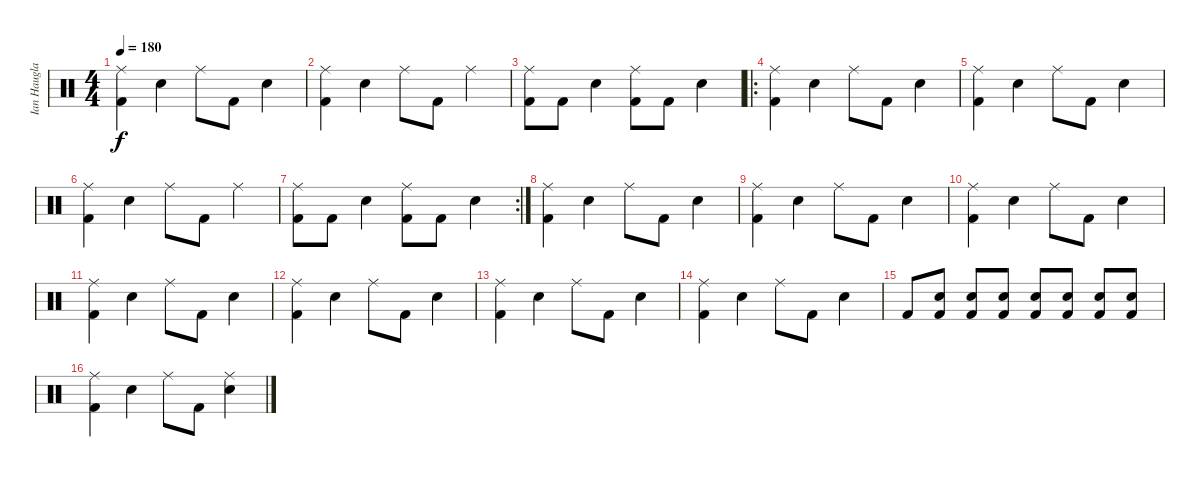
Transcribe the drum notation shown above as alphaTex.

\track ("Ian Haugland drums" "Ian Haugla") {instrument percussion}
\staff {score}
\articulation defaults
\ts (4 4)
\tempo 180
\clef neutral
\ks c
("Ride (middle)" "Kick (hit) 2").4{dy f} "Snare (hit) 2".4 "Ride (middle)".8 "Kick (hit) 2".8 "Snare (hit) 2".4 |
("Ride (middle)" "Kick (hit) 2").4 "Snare (hit) 2".4 "Ride (middle)".8 "Kick (hit) 2".8 "Ride (middle)".4 |
("Ride (middle)" "Kick (hit) 2").8 "Kick (hit) 2".8 "Snare (hit) 2".4 ("Ride (middle)" "Kick (hit) 2").8 "Kick (hit) 2".8 "Snare (hit) 2".4 |
\ro
("Ride (middle)" "Kick (hit) 2").4 "Snare (hit) 2".4 "Ride (middle)".8 "Kick (hit) 2".8 "Snare (hit) 2".4 |
("Ride (middle)" "Kick (hit) 2").4 "Snare (hit) 2".4 "Ride (middle)".8 "Kick (hit) 2".8 "Snare (hit) 2".4 |
("Ride (middle)" "Kick (hit) 2").4 "Snare (hit) 2".4 "Ride (middle)".8 "Kick (hit) 2".8 "Ride (middle)".4 |
\rc 2
("Ride (middle)" "Kick (hit) 2").8 "Kick (hit) 2".8 "Snare (hit) 2".4 ("Ride (middle)" "Kick (hit) 2").8 "Kick (hit) 2".8 "Snare (hit) 2".4 |
("Ride (middle)" "Kick (hit) 2").4 "Snare (hit) 2".4 "Ride (middle)".8 "Kick (hit) 2".8 "Snare (hit) 2".4 |
("Ride (middle)" "Kick (hit) 2").4 "Snare (hit) 2".4 "Ride (middle)".8 "Kick (hit) 2".8 "Snare (hit) 2".4 |
("Ride (middle)" "Kick (hit) 2").4 "Snare (hit) 2".4 "Ride (middle)".8 "Kick (hit) 2".8 "Snare (hit) 2".4 |
("Ride (middle)" "Kick (hit) 2").4 "Snare (hit) 2".4 "Ride (middle)".8 "Kick (hit) 2".8 "Snare (hit) 2".4 |
("Ride (middle)" "Kick (hit) 2").4 "Snare (hit) 2".4 "Ride (middle)".8 "Kick (hit) 2".8 "Snare (hit) 2".4 |
("Ride (middle)" "Kick (hit) 2").4 "Snare (hit) 2".4 "Ride (middle)".8 "Kick (hit) 2".8 "Snare (hit) 2".4 |
("Ride (middle)" "Kick (hit) 2").4 "Snare (hit) 2".4 "Ride (middle)".8 "Kick (hit) 2".8 "Snare (hit) 2".4 |
"Kick (hit) 2".8 ("Snare (hit) 2" "Kick (hit) 2").8 ("Snare (hit) 2" "Kick (hit) 2").8 ("Snare (hit) 2" "Kick (hit) 2").8 ("Snare (hit) 2" "Kick (hit) 2").8 ("Snare (hit) 2" "Kick (hit) 2").8 ("Snare (hit) 2" "Kick (hit) 2").8 ("Snare (hit) 2" "Kick (hit) 2").8 |
("Ride (middle)" "Kick (hit) 2").4 "Snare (hit) 2".4 "Ride (middle)".8 "Kick (hit) 2".8 ("Ride (middle)" "Snare (hit) 2").4
